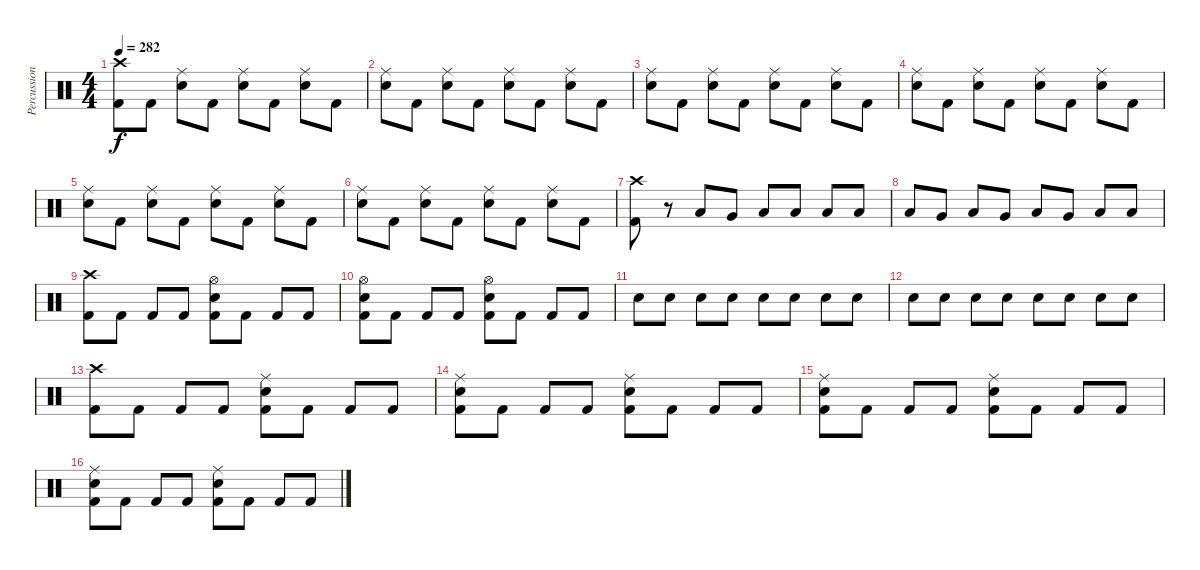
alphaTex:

\track ("Percussion" "Percussion") {instrument percussion}
\staff {score}
\articulation defaults
\ts (4 4)
\tempo 282
\clef neutral
\ks c
("Kick (hit) 2" "Crash high (hit)").8{dy f} "Kick (hit) 2"{x}.8 ("Snare (hit) 2" "Ride (middle)").8 "Kick (hit) 2".8 ("Snare (hit) 2" "Ride (middle)").8 "Kick (hit) 2".8 ("Snare (hit) 2" "Ride (middle)").8 "Kick (hit) 2".8 |
("Snare (hit) 2" "Ride (middle)").8 "Kick (hit) 2".8 ("Snare (hit) 2" "Ride (middle)").8 "Kick (hit) 2".8 ("Snare (hit) 2" "Ride (middle)").8 "Kick (hit) 2".8 ("Snare (hit) 2" "Ride (middle)").8 "Kick (hit) 2".8 |
("Snare (hit) 2" "Ride (middle)").8 "Kick (hit) 2".8 ("Snare (hit) 2" "Ride (middle)").8 "Kick (hit) 2".8 ("Snare (hit) 2" "Ride (middle)").8 "Kick (hit) 2".8 ("Snare (hit) 2" "Ride (middle)").8 "Kick (hit) 2".8 |
("Snare (hit) 2" "Ride (middle)").8 "Kick (hit) 2".8 ("Snare (hit) 2" "Ride (middle)").8 "Kick (hit) 2".8 ("Snare (hit) 2" "Ride (middle)").8 "Kick (hit) 2".8 ("Snare (hit) 2" "Ride (middle)").8 "Kick (hit) 2".8 |
("Snare (hit) 2" "Ride (middle)").8 "Kick (hit) 2".8 ("Snare (hit) 2" "Ride (middle)").8 "Kick (hit) 2".8 ("Snare (hit) 2" "Ride (middle)").8 "Kick (hit) 2".8 ("Snare (hit) 2" "Ride (middle)").8 "Kick (hit) 2".8 |
("Snare (hit) 2" "Ride (middle)").8 "Kick (hit) 2".8 ("Snare (hit) 2" "Ride (middle)").8 "Kick (hit) 2".8 ("Snare (hit) 2" "Ride (middle)").8 "Kick (hit) 2".8 ("Snare (hit) 2" "Ride (middle)").8 "Kick (hit) 2".8 |
("Kick (hit) 2" "Crash high (hit)").8 r.8 "Low Tom (hit)".8 "Very Low Tom (hit)".8 "Low Floor Tom (hit)".8 "Low Floor Tom (hit)".8 "Low Tom (hit)".8 "Low Tom (hit)".8 |
"Low Tom (hit)".8 "Very Low Tom (hit)".8 "Low Tom (hit)".8 "Very Low Tom (hit)".8 "Low Floor Tom (hit)".8 "Very Low Tom (hit)".8 "Low Floor Tom (hit)".8 "Low Floor Tom (hit)".8 |
("Kick (hit) 2" "Crash high (hit)").8 "Kick (hit) 2".8 "Kick (hit) 2".8 "Kick (hit) 2".8 ("Kick (hit) 2" "Snare (hit) 2" "Hi-Hat (open)").8 "Kick (hit) 2".8 "Kick (hit) 2".8 "Kick (hit) 2".8 |
("Kick (hit) 2" "Snare (hit) 2" "Hi-Hat (open)").8 "Kick (hit) 2".8 "Kick (hit) 2".8 "Kick (hit) 2".8 ("Kick (hit) 2" "Snare (hit) 2" "Hi-Hat (open)").8 "Kick (hit) 2".8 "Kick (hit) 2".8 "Kick (hit) 2".8 |
"Snare (hit) 2".8 "Snare (hit) 2".8 "Snare (hit) 2".8 "Snare (hit) 2".8 "Snare (hit)"{x}.8 "Snare (hit)"{x}.8 "Snare (hit) 2".8 "Snare (hit) 2".8 |
"Snare (hit) 2".8 "Snare (hit) 2".8 "Snare (hit)"{x}.8 "Snare (hit)"{x}.8 "Snare (hit) 2".8 "Snare (hit) 2".8 "Snare (hit) 2".8 "Snare (hit) 2".8 |
("Kick (hit) 2" "Crash high (hit)").8 "Kick (hit) 2".8 "Kick (hit) 2".8 "Kick (hit) 2".8 ("Kick (hit) 2" "Snare (hit) 2" "Ride (middle)").8 "Kick (hit) 2".8 "Kick (hit) 2".8 "Kick (hit) 2".8 |
("Kick (hit) 2" "Snare (hit) 2" "Ride (middle)").8 "Kick (hit) 2".8 "Kick (hit) 2".8 "Kick (hit) 2".8 ("Kick (hit) 2" "Snare (hit) 2" "Ride (middle)").8 "Kick (hit) 2".8 "Kick (hit) 2".8 "Kick (hit) 2".8 |
("Kick (hit) 2" "Snare (hit) 2" "Ride (middle)").8 "Kick (hit) 2".8 "Kick (hit) 2".8 "Kick (hit) 2".8 ("Kick (hit) 2" "Snare (hit) 2" "Ride (middle)").8 "Kick (hit) 2".8 "Kick (hit) 2".8 "Kick (hit) 2".8 |
("Kick (hit) 2" "Snare (hit) 2" "Ride (middle)").8 "Kick (hit) 2".8 "Kick (hit) 2".8 "Kick (hit) 2".8 ("Kick (hit) 2" "Snare (hit) 2" "Ride (middle)").8 "Kick (hit) 2".8 "Kick (hit) 2".8 "Kick (hit) 2".8
